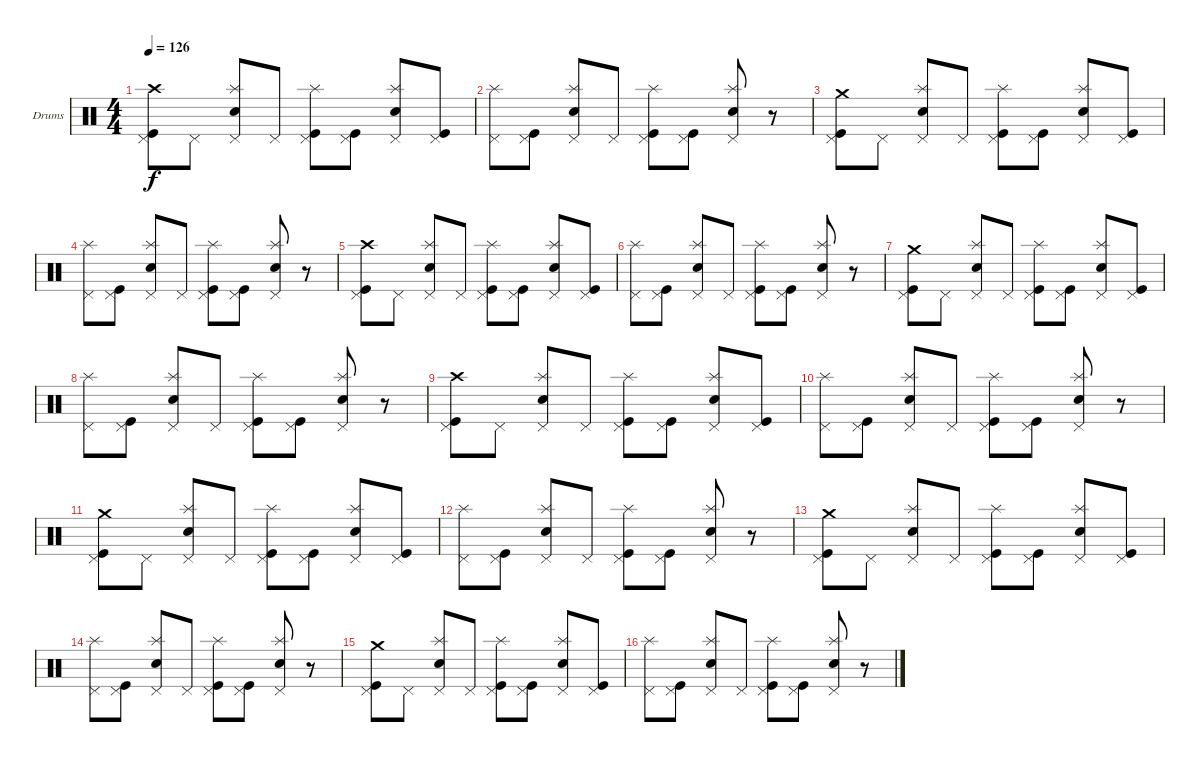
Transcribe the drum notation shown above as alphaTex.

\bracketExtendMode groupsimilarinstruments
\firstSystemTrackNameOrientation horizontal
\otherSystemsTrackNameOrientation horizontal
\track ("Drumkit" "Drums") {instrument percussion}
\staff {score}
\articulation defaults
\ts (4 4)
\tempo 126
\clef neutral
\ks c
("Pedal Hi-Hat (hit)" "Kick (hit)" "Crash high (hit)").8{dy f} "Pedal Hi-Hat (hit)".8 ("Pedal Hi-Hat (hit)" "Splash (hit)" "Snare (hit) 2").8 "Pedal Hi-Hat (hit)".8 ("Pedal Hi-Hat (hit)" "Splash (hit)" "Kick (hit)").8 ("Pedal Hi-Hat (hit)" "Kick (hit)").8 ("Pedal Hi-Hat (hit)" "Splash (hit)" "Snare (hit) 2").8 ("Pedal Hi-Hat (hit)" "Kick (hit)").8 |
("Pedal Hi-Hat (hit)" "Splash (hit)").8 ("Pedal Hi-Hat (hit)" "Kick (hit)").8 ("Pedal Hi-Hat (hit)" "Splash (hit)" "Snare (hit) 2").8 "Pedal Hi-Hat (hit)".8 ("Pedal Hi-Hat (hit)" "Splash (hit)" "Kick (hit)").8 ("Pedal Hi-Hat (hit)" "Kick (hit)").8 ("Pedal Hi-Hat (hit)" "Splash (hit)" "Snare (hit) 2").8 r.8 |
("Pedal Hi-Hat (hit)" "Kick (hit)" "Crash medium (hit)").8 "Pedal Hi-Hat (hit)".8 ("Pedal Hi-Hat (hit)" "Snare (hit) 2" "Splash (hit)").8 "Pedal Hi-Hat (hit)".8 ("Pedal Hi-Hat (hit)" "Kick (hit)" "Splash (hit)").8 ("Kick (hit)" "Pedal Hi-Hat (hit)").8 ("Splash (hit)" "Snare (hit) 2" "Pedal Hi-Hat (hit)").8 ("Pedal Hi-Hat (hit)" "Kick (hit)").8 |
("Splash (hit)" "Pedal Hi-Hat (hit)").8 ("Kick (hit)" "Pedal Hi-Hat (hit)").8 ("Splash (hit)" "Snare (hit) 2" "Pedal Hi-Hat (hit)").8 "Pedal Hi-Hat (hit)".8 ("Splash (hit)" "Kick (hit)" "Pedal Hi-Hat (hit)").8 ("Pedal Hi-Hat (hit)" "Kick (hit)").8 ("Pedal Hi-Hat (hit)" "Snare (hit) 2" "Splash (hit)").8 r.8 |
("Pedal Hi-Hat (hit)" "Kick (hit)" "Crash high (hit)").8 "Pedal Hi-Hat (hit)".8 ("Pedal Hi-Hat (hit)" "Splash (hit)" "Snare (hit) 2").8 "Pedal Hi-Hat (hit)".8 ("Pedal Hi-Hat (hit)" "Splash (hit)" "Kick (hit)").8 ("Pedal Hi-Hat (hit)" "Kick (hit)").8 ("Pedal Hi-Hat (hit)" "Splash (hit)" "Snare (hit) 2").8 ("Pedal Hi-Hat (hit)" "Kick (hit)").8 |
("Pedal Hi-Hat (hit)" "Splash (hit)").8 ("Pedal Hi-Hat (hit)" "Kick (hit)").8 ("Pedal Hi-Hat (hit)" "Splash (hit)" "Snare (hit) 2").8 "Pedal Hi-Hat (hit)".8 ("Pedal Hi-Hat (hit)" "Splash (hit)" "Kick (hit)").8 ("Pedal Hi-Hat (hit)" "Kick (hit)").8 ("Pedal Hi-Hat (hit)" "Splash (hit)" "Snare (hit) 2").8 r.8 |
("Pedal Hi-Hat (hit)" "Kick (hit)" "Crash medium (hit)").8 "Pedal Hi-Hat (hit)".8 ("Pedal Hi-Hat (hit)" "Snare (hit) 2" "Splash (hit)").8 "Pedal Hi-Hat (hit)".8 ("Pedal Hi-Hat (hit)" "Kick (hit)" "Splash (hit)").8 ("Kick (hit)" "Pedal Hi-Hat (hit)").8 ("Splash (hit)" "Snare (hit) 2" "Pedal Hi-Hat (hit)").8 ("Pedal Hi-Hat (hit)" "Kick (hit)").8 |
("Splash (hit)" "Pedal Hi-Hat (hit)").8 ("Kick (hit)" "Pedal Hi-Hat (hit)").8 ("Splash (hit)" "Snare (hit) 2" "Pedal Hi-Hat (hit)").8 "Pedal Hi-Hat (hit)".8 ("Splash (hit)" "Kick (hit)" "Pedal Hi-Hat (hit)").8 ("Pedal Hi-Hat (hit)" "Kick (hit)").8 ("Pedal Hi-Hat (hit)" "Snare (hit) 2" "Splash (hit)").8 r.8 |
("Pedal Hi-Hat (hit)" "Kick (hit)" "Crash high (hit)").8 "Pedal Hi-Hat (hit)".8 ("Pedal Hi-Hat (hit)" "Splash (hit)" "Snare (hit) 2").8 "Pedal Hi-Hat (hit)".8 ("Pedal Hi-Hat (hit)" "Splash (hit)" "Kick (hit)").8 ("Pedal Hi-Hat (hit)" "Kick (hit)").8 ("Pedal Hi-Hat (hit)" "Splash (hit)" "Snare (hit) 2").8 ("Pedal Hi-Hat (hit)" "Kick (hit)").8 |
("Pedal Hi-Hat (hit)" "Splash (hit)").8 ("Pedal Hi-Hat (hit)" "Kick (hit)").8 ("Pedal Hi-Hat (hit)" "Splash (hit)" "Snare (hit) 2").8 "Pedal Hi-Hat (hit)".8 ("Pedal Hi-Hat (hit)" "Splash (hit)" "Kick (hit)").8 ("Pedal Hi-Hat (hit)" "Kick (hit)").8 ("Pedal Hi-Hat (hit)" "Splash (hit)" "Snare (hit) 2").8 r.8 |
("Pedal Hi-Hat (hit)" "Kick (hit)" "Crash medium (hit)").8 "Pedal Hi-Hat (hit)".8 ("Pedal Hi-Hat (hit)" "Snare (hit) 2" "Splash (hit)").8 "Pedal Hi-Hat (hit)".8 ("Pedal Hi-Hat (hit)" "Kick (hit)" "Splash (hit)").8 ("Kick (hit)" "Pedal Hi-Hat (hit)").8 ("Splash (hit)" "Snare (hit) 2" "Pedal Hi-Hat (hit)").8 ("Pedal Hi-Hat (hit)" "Kick (hit)").8 |
("Splash (hit)" "Pedal Hi-Hat (hit)").8 ("Kick (hit)" "Pedal Hi-Hat (hit)").8 ("Splash (hit)" "Snare (hit) 2" "Pedal Hi-Hat (hit)").8 "Pedal Hi-Hat (hit)".8 ("Splash (hit)" "Kick (hit)" "Pedal Hi-Hat (hit)").8 ("Pedal Hi-Hat (hit)" "Kick (hit)").8 ("Pedal Hi-Hat (hit)" "Snare (hit) 2" "Splash (hit)").8 r.8 |
("Pedal Hi-Hat (hit)" "Kick (hit)" "Crash medium (hit)").8 "Pedal Hi-Hat (hit)".8 ("Pedal Hi-Hat (hit)" "Snare (hit) 2" "Splash (hit)").8 "Pedal Hi-Hat (hit)".8 ("Pedal Hi-Hat (hit)" "Kick (hit)" "Splash (hit)").8 ("Kick (hit)" "Pedal Hi-Hat (hit)").8 ("Splash (hit)" "Snare (hit) 2" "Pedal Hi-Hat (hit)").8 ("Pedal Hi-Hat (hit)" "Kick (hit)").8 |
("Splash (hit)" "Pedal Hi-Hat (hit)").8 ("Kick (hit)" "Pedal Hi-Hat (hit)").8 ("Splash (hit)" "Snare (hit) 2" "Pedal Hi-Hat (hit)").8 "Pedal Hi-Hat (hit)".8 ("Splash (hit)" "Kick (hit)" "Pedal Hi-Hat (hit)").8 ("Pedal Hi-Hat (hit)" "Kick (hit)").8 ("Pedal Hi-Hat (hit)" "Snare (hit) 2" "Splash (hit)").8 r.8 |
("Pedal Hi-Hat (hit)" "Kick (hit)" "Crash medium (hit)").8 "Pedal Hi-Hat (hit)".8 ("Pedal Hi-Hat (hit)" "Snare (hit) 2" "Splash (hit)").8 "Pedal Hi-Hat (hit)".8 ("Pedal Hi-Hat (hit)" "Kick (hit)" "Splash (hit)").8 ("Kick (hit)" "Pedal Hi-Hat (hit)").8 ("Splash (hit)" "Snare (hit) 2" "Pedal Hi-Hat (hit)").8 ("Pedal Hi-Hat (hit)" "Kick (hit)").8 |
("Splash (hit)" "Pedal Hi-Hat (hit)").8 ("Kick (hit)" "Pedal Hi-Hat (hit)").8 ("Splash (hit)" "Snare (hit) 2" "Pedal Hi-Hat (hit)").8 "Pedal Hi-Hat (hit)".8 ("Splash (hit)" "Kick (hit)" "Pedal Hi-Hat (hit)").8 ("Pedal Hi-Hat (hit)" "Kick (hit)").8 ("Pedal Hi-Hat (hit)" "Snare (hit) 2" "Splash (hit)").8 r.8
